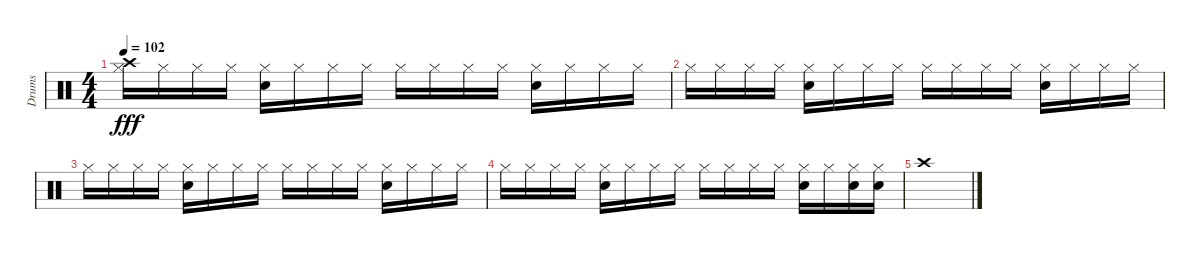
\track ("Drums" "Drums") {instrument percussion}
\staff {score}
\articulation defaults
\ts (4 4)
\tempo 102
\clef neutral
\ks c
("Hi-Hat (closed)" "Crash high (hit)").16{dy fff} "Hi-Hat (closed)".16 "Hi-Hat (closed)".16 "Hi-Hat (closed)".16 ("Hi-Hat (closed)" "Hand Clap (hit)").16 "Hi-Hat (closed)".16 "Hi-Hat (closed)".16 "Hi-Hat (closed)".16 "Hi-Hat (closed)".16 "Hi-Hat (closed)".16 "Hi-Hat (closed)".16 "Hi-Hat (closed)".16 ("Hi-Hat (closed)" "Hand Clap (hit)").16 "Hi-Hat (closed)".16 "Hi-Hat (closed)".16 "Hi-Hat (closed)".16 |
"Hi-Hat (closed)".16 "Hi-Hat (closed)".16 "Hi-Hat (closed)".16 "Hi-Hat (closed)".16 ("Hi-Hat (closed)" "Hand Clap (hit)").16 "Hi-Hat (closed)".16 "Hi-Hat (closed)".16 "Hi-Hat (closed)".16 "Hi-Hat (closed)".16 "Hi-Hat (closed)".16 "Hi-Hat (closed)".16 "Hi-Hat (closed)".16 ("Hi-Hat (closed)" "Hand Clap (hit)").16 "Hi-Hat (closed)".16 "Hi-Hat (closed)".16 "Hi-Hat (closed)".16 |
"Hi-Hat (closed)".16 "Hi-Hat (closed)".16 "Hi-Hat (closed)".16 "Hi-Hat (closed)".16 ("Hi-Hat (closed)" "Hand Clap (hit)").16 "Hi-Hat (closed)".16 "Hi-Hat (closed)".16 "Hi-Hat (closed)".16 "Hi-Hat (closed)".16 "Hi-Hat (closed)".16 "Hi-Hat (closed)".16 "Hi-Hat (closed)".16 ("Hi-Hat (closed)" "Hand Clap (hit)").16 "Hi-Hat (closed)".16 "Hi-Hat (closed)".16 "Hi-Hat (closed)".16 |
"Hi-Hat (closed)".16 "Hi-Hat (closed)".16 "Hi-Hat (closed)".16 "Hi-Hat (closed)".16 ("Hi-Hat (closed)" "Hand Clap (hit)").16 "Hi-Hat (closed)".16 "Hi-Hat (closed)".16 "Hi-Hat (closed)".16 "Hi-Hat (closed)".16 "Hi-Hat (closed)".16 "Hi-Hat (closed)".16 "Hi-Hat (closed)".16 ("Hi-Hat (closed)" "Hand Clap (hit)").16 "Hi-Hat (closed)".16 ("Hi-Hat (closed)" "Hand Clap (hit)").16 ("Hi-Hat (closed)" "Hand Clap (hit)").16 |
"Crash high (hit)".1
